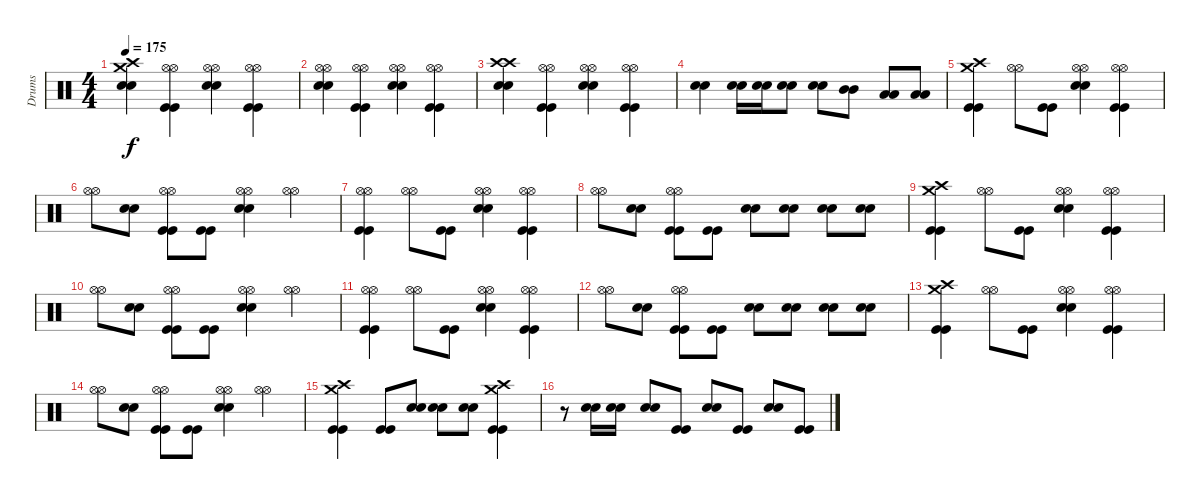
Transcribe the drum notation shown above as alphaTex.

\track ("Drums" "Drums") {instrument percussion}
\staff {score}
\articulation defaults
\ts (4 4)
\tempo 175
\clef neutral
\ks c
("Crash high (hit)" "Crash medium (hit)" "Electric Snare (hit)" "Electric Snare (hit)").4{dy f} ("Hi-Hat (open)" "Hi-Hat (open)" "Kick (hit)" "Kick (hit)").4 ("Hi-Hat (open)" "Hi-Hat (open)" "Electric Snare (hit)" "Electric Snare (hit)").4 ("Hi-Hat (open)" "Hi-Hat (open)" "Kick (hit)" "Kick (hit)").4 |
("Hi-Hat (open)" "Hi-Hat (open)" "Electric Snare (hit)" "Electric Snare (hit)").4 ("Hi-Hat (open)" "Hi-Hat (open)" "Kick (hit)" "Kick (hit)").4 ("Hi-Hat (open)" "Hi-Hat (open)" "Electric Snare (hit)" "Electric Snare (hit)").4 ("Hi-Hat (open)" "Hi-Hat (open)" "Kick (hit)" "Kick (hit)").4 |
("Crash high (hit)" "Crash high (hit)" "Electric Snare (hit)" "Electric Snare (hit)").4 ("Hi-Hat (open)" "Hi-Hat (open)" "Kick (hit)" "Kick (hit)").4 ("Hi-Hat (open)" "Hi-Hat (open)" "Electric Snare (hit)" "Electric Snare (hit)").4 ("Hi-Hat (open)" "Hi-Hat (open)" "Kick (hit)" "Kick (hit)").4 |
("Electric Snare (hit)" "Electric Snare (hit)").4 ("Electric Snare (hit)" "Electric Snare (hit)").16 ("Electric Snare (hit)" "Electric Snare (hit)").16 ("Electric Snare (hit)" "Electric Snare (hit)").8 ("Electric Snare (hit)" "Electric Snare (hit)").8 ("Mid Tom (hit)" "Mid Tom (hit)").8 ("Low Tom (hit)" "Low Tom (hit)").8 ("Low Floor Tom (hit)" "Low Floor Tom (hit)").8 |
("Crash high (hit)" "Crash medium (hit)" "Kick (hit)" "Kick (hit)").4 ("Hi-Hat (open)" "Hi-Hat (open)").8 ("Kick (hit)" "Kick (hit)").8 ("Hi-Hat (open)" "Hi-Hat (open)" "Electric Snare (hit)" "Electric Snare (hit)").4 ("Hi-Hat (open)" "Hi-Hat (open)" "Kick (hit)" "Kick (hit)").4 |
("Hi-Hat (open)" "Hi-Hat (open)").8 ("Electric Snare (hit)" "Electric Snare (hit)").8 ("Hi-Hat (open)" "Hi-Hat (open)" "Kick (hit)" "Kick (hit)").8 ("Kick (hit)" "Kick (hit)").8 ("Hi-Hat (open)" "Hi-Hat (open)" "Electric Snare (hit)" "Electric Snare (hit)").4 ("Hi-Hat (open)" "Hi-Hat (open)").4 |
("Hi-Hat (open)" "Hi-Hat (open)" "Kick (hit)" "Kick (hit)").4 ("Hi-Hat (open)" "Hi-Hat (open)").8 ("Kick (hit)" "Kick (hit)").8 ("Hi-Hat (open)" "Hi-Hat (open)" "Electric Snare (hit)" "Electric Snare (hit)").4 ("Hi-Hat (open)" "Hi-Hat (open)" "Kick (hit)" "Kick (hit)").4 |
("Hi-Hat (open)" "Hi-Hat (open)").8 ("Electric Snare (hit)" "Electric Snare (hit)").8 ("Hi-Hat (open)" "Hi-Hat (open)" "Kick (hit)" "Kick (hit)").8 ("Kick (hit)" "Kick (hit)").8 ("Electric Snare (hit)" "Electric Snare (hit)").8 ("Electric Snare (hit)" "Electric Snare (hit)").8 ("Electric Snare (hit)" "Electric Snare (hit)").8 ("Electric Snare (hit)" "Electric Snare (hit)").8 |
("Crash high (hit)" "Crash medium (hit)" "Kick (hit)" "Kick (hit)").4 ("Hi-Hat (open)" "Hi-Hat (open)").8 ("Kick (hit)" "Kick (hit)").8 ("Hi-Hat (open)" "Hi-Hat (open)" "Electric Snare (hit)" "Electric Snare (hit)").4 ("Hi-Hat (open)" "Hi-Hat (open)" "Kick (hit)" "Kick (hit)").4 |
("Hi-Hat (open)" "Hi-Hat (open)").8 ("Electric Snare (hit)" "Electric Snare (hit)").8 ("Hi-Hat (open)" "Hi-Hat (open)" "Kick (hit)" "Kick (hit)").8 ("Kick (hit)" "Kick (hit)").8 ("Hi-Hat (open)" "Hi-Hat (open)" "Electric Snare (hit)" "Electric Snare (hit)").4 ("Hi-Hat (open)" "Hi-Hat (open)").4 |
("Hi-Hat (open)" "Hi-Hat (open)" "Kick (hit)" "Kick (hit)").4 ("Hi-Hat (open)" "Hi-Hat (open)").8 ("Kick (hit)" "Kick (hit)").8 ("Hi-Hat (open)" "Hi-Hat (open)" "Electric Snare (hit)" "Electric Snare (hit)").4 ("Hi-Hat (open)" "Hi-Hat (open)" "Kick (hit)" "Kick (hit)").4 |
("Hi-Hat (open)" "Hi-Hat (open)").8 ("Electric Snare (hit)" "Electric Snare (hit)").8 ("Hi-Hat (open)" "Hi-Hat (open)" "Kick (hit)" "Kick (hit)").8 ("Kick (hit)" "Kick (hit)").8 ("Electric Snare (hit)" "Electric Snare (hit)").8 ("Electric Snare (hit)" "Electric Snare (hit)").8 ("Electric Snare (hit)" "Electric Snare (hit)").8 ("Electric Snare (hit)" "Electric Snare (hit)").8 |
("Crash high (hit)" "Crash medium (hit)" "Kick (hit)" "Kick (hit)").4 ("Hi-Hat (open)" "Hi-Hat (open)").8 ("Kick (hit)" "Kick (hit)").8 ("Hi-Hat (open)" "Hi-Hat (open)" "Electric Snare (hit)" "Electric Snare (hit)").4 ("Hi-Hat (open)" "Hi-Hat (open)" "Kick (hit)" "Kick (hit)").4 |
("Hi-Hat (open)" "Hi-Hat (open)").8 ("Electric Snare (hit)" "Electric Snare (hit)").8 ("Hi-Hat (open)" "Hi-Hat (open)" "Kick (hit)" "Kick (hit)").8 ("Kick (hit)" "Kick (hit)").8 ("Hi-Hat (open)" "Hi-Hat (open)" "Electric Snare (hit)" "Electric Snare (hit)").4 ("Hi-Hat (open)" "Hi-Hat (open)").4 |
("Crash high (hit)" "Crash medium (hit)" "Kick (hit)" "Kick (hit)").4 ("Kick (hit)" "Kick (hit)").8 ("Electric Snare (hit)" "Electric Snare (hit)").8 ("Electric Snare (hit)" "Electric Snare (hit)").8 ("Electric Snare (hit)" "Electric Snare (hit)").8 ("Crash high (hit)" "Crash medium (hit)" "Kick (hit)" "Kick (hit)").4 |
r.8 ("Electric Snare (hit)" "Electric Snare (hit)").16 ("Electric Snare (hit)" "Electric Snare (hit)").16 ("Electric Snare (hit)" "Electric Snare (hit)").8 ("Kick (hit)" "Kick (hit)").8 ("Electric Snare (hit)" "Electric Snare (hit)").8 ("Kick (hit)" "Kick (hit)").8 ("Electric Snare (hit)" "Electric Snare (hit)").8 ("Kick (hit)" "Kick (hit)").8
